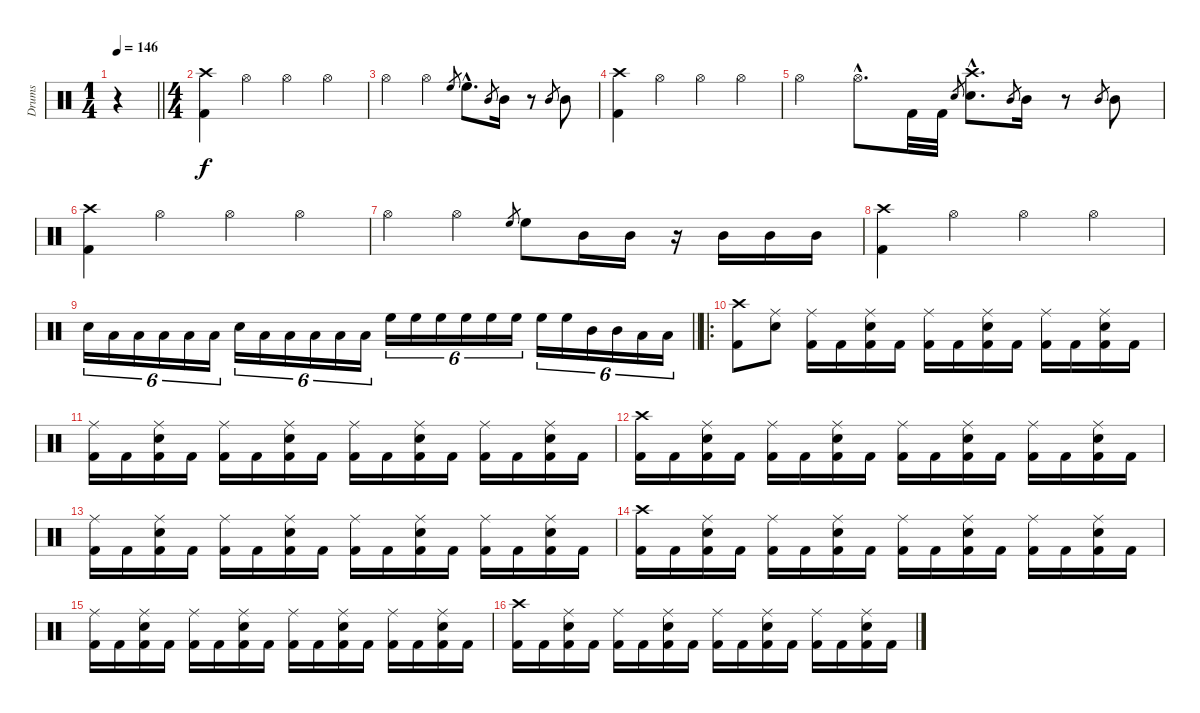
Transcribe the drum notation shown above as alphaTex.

\track ("Drums" "Drums") {instrument percussion}
\staff {score}
\articulation defaults
\ts (1 4)
\tempo 146
\clef neutral
\barLineRight lightlight
\ks c
r.4{dy f} |
\ts (4 4)
("Crash high (hit)" "Kick (hit) 2").4 "Hi-Hat (open)".4 "Hi-Hat (open)".4 "Hi-Hat (open)".4 |
"Hi-Hat (open)".4 "Hi-Hat (open)".4 "High Floor Tom (hit)".8{gr} "High Floor Tom (hit)"{hac}.8{d} "Mid Tom (hit)".8{gr} "Mid Tom (hit)".16 r.8 "Mid Tom (hit)".8{gr} "Mid Tom (hit)".8 |
("Crash high (hit)" "Kick (hit) 2").4 "Hi-Hat (open)".4 "Hi-Hat (open)".4 "Hi-Hat (open)".4 |
"Hi-Hat (open)".4 "Hi-Hat (open)"{hac}.8{d} "Kick (hit) 2".32 "Kick (hit) 2".32 "Snare (hit) 2".8{gr} ("Crash high (hit)"{hac} "Snare (hit) 2"{hac}).8{d} "Mid Tom (hit)".8{gr} "Mid Tom (hit)".16 r.8 "Mid Tom (hit)".8{gr} "Mid Tom (hit)".8 |
("Crash high (hit)" "Kick (hit) 2").4 "Hi-Hat (open)".4 "Hi-Hat (open)".4 "Hi-Hat (open)".4 |
"Hi-Hat (open)".4 "Hi-Hat (open)".4 "High Floor Tom (hit)".8{gr} "High Floor Tom (hit)".8 "Mid Tom (hit)".16 "Mid Tom (hit)".16 r.16 "Mid Tom (hit)".16 "Mid Tom (hit)".16 "Mid Tom (hit)".16 |
("Crash high (hit)" "Kick (hit) 2").4 "Hi-Hat (open)".4 "Hi-Hat (open)".4 "Hi-Hat (open)".4 |
\barLineRight lightlight "Snare (hit) 2".16{tu (6 4)} "Low Floor Tom (hit)".16{tu (6 4)} "Low Floor Tom (hit)".16{tu (6 4)} "Low Floor Tom (hit)".16{tu (6 4)} "Low Floor Tom (hit)".16{tu (6 4)} "Low Floor Tom (hit)".16{tu (6 4)} "Snare (hit) 2".16{tu (6 4)} "Low Floor Tom (hit)".16{tu (6 4)} "Low Floor Tom (hit)".16{tu (6 4)} "Low Floor Tom (hit)".16{tu (6 4)} "Low Floor Tom (hit)".16{tu (6 4)} "Low Floor Tom (hit)".16{tu (6 4)} "High Floor Tom (hit)".16{tu (6 4)} "High Floor Tom (hit)".16{tu (6 4)} "High Floor Tom (hit)".16{tu (6 4)} "High Floor Tom (hit)".16{tu (6 4)} "High Floor Tom (hit)".16{tu (6 4)} "High Floor Tom (hit)".16{tu (6 4)} "High Floor Tom (hit)".16{tu (6 4)} "High Floor Tom (hit)".16{tu (6 4)} "Mid Tom (hit)".16{tu (6 4)} "Mid Tom (hit)".16{tu (6 4)} "Low Floor Tom (hit)".16{tu (6 4)} "Low Floor Tom (hit)".16{tu (6 4)}
|
\ro
("Crash high (hit)" "Kick (hit) 2").8 ("Ride (middle)" "Snare (hit) 2").8 ("Ride (middle)" "Kick (hit) 2").16 "Kick (hit) 2".16 ("Ride (middle)" "Snare (hit) 2" "Kick (hit) 2").16 "Kick (hit) 2".16 ("Ride (middle)" "Kick (hit) 2").16 "Kick (hit) 2".16 ("Ride (middle)" "Snare (hit) 2" "Kick (hit) 2").16 "Kick (hit) 2".16 ("Ride (middle)" "Kick (hit) 2").16 "Kick (hit) 2".16 ("Ride (middle)" "Snare (hit) 2" "Kick (hit) 2").16 "Kick (hit) 2".16 |
("Ride (middle)" "Kick (hit) 2").16 "Kick (hit) 2".16 ("Ride (middle)" "Snare (hit) 2" "Kick (hit) 2").16 "Kick (hit) 2".16 ("Ride (middle)" "Kick (hit) 2").16 "Kick (hit) 2".16 ("Ride (middle)" "Snare (hit) 2" "Kick (hit) 2").16 "Kick (hit) 2".16 ("Ride (middle)" "Kick (hit) 2").16 "Kick (hit) 2".16 ("Ride (middle)" "Snare (hit) 2" "Kick (hit) 2").16 "Kick (hit) 2".16 ("Ride (middle)" "Kick (hit) 2").16 "Kick (hit) 2".16 ("Ride (middle)" "Snare (hit) 2" "Kick (hit) 2").16 "Kick (hit) 2".16 |
("Crash high (hit)" "Kick (hit) 2").16 "Kick (hit) 2".16 ("Ride (middle)" "Snare (hit) 2" "Kick (hit) 2").16 "Kick (hit) 2".16 ("Ride (middle)" "Kick (hit) 2").16 "Kick (hit) 2".16 ("Ride (middle)" "Snare (hit) 2" "Kick (hit) 2").16 "Kick (hit) 2".16 ("Ride (middle)" "Kick (hit) 2").16 "Kick (hit) 2".16 ("Ride (middle)" "Snare (hit) 2" "Kick (hit) 2").16 "Kick (hit) 2".16 ("Ride (middle)" "Kick (hit) 2").16 "Kick (hit) 2".16 ("Ride (middle)" "Snare (hit) 2" "Kick (hit) 2").16 "Kick (hit) 2".16 |
("Ride (middle)" "Kick (hit) 2").16 "Kick (hit) 2".16 ("Ride (middle)" "Snare (hit) 2" "Kick (hit) 2").16 "Kick (hit) 2".16 ("Ride (middle)" "Kick (hit) 2").16 "Kick (hit) 2".16 ("Ride (middle)" "Snare (hit) 2" "Kick (hit) 2").16 "Kick (hit) 2".16 ("Ride (middle)" "Kick (hit) 2").16 "Kick (hit) 2".16 ("Ride (middle)" "Snare (hit) 2" "Kick (hit) 2").16 "Kick (hit) 2".16 ("Ride (middle)" "Kick (hit) 2").16 "Kick (hit) 2".16 ("Ride (middle)" "Snare (hit) 2" "Kick (hit) 2").16 "Kick (hit) 2".16 |
("Crash high (hit)" "Kick (hit) 2").16 "Kick (hit) 2".16 ("Ride (middle)" "Snare (hit) 2" "Kick (hit) 2").16 "Kick (hit) 2".16 ("Ride (middle)" "Kick (hit) 2").16 "Kick (hit) 2".16 ("Ride (middle)" "Snare (hit) 2" "Kick (hit) 2").16 "Kick (hit) 2".16 ("Ride (middle)" "Kick (hit) 2").16 "Kick (hit) 2".16 ("Ride (middle)" "Snare (hit) 2" "Kick (hit) 2").16 "Kick (hit) 2".16 ("Ride (middle)" "Kick (hit) 2").16 "Kick (hit) 2".16 ("Ride (middle)" "Snare (hit) 2" "Kick (hit) 2").16 "Kick (hit) 2".16 |
("Ride (middle)" "Kick (hit) 2").16 "Kick (hit) 2".16 ("Ride (middle)" "Snare (hit) 2" "Kick (hit) 2").16 "Kick (hit) 2".16 ("Ride (middle)" "Kick (hit) 2").16 "Kick (hit) 2".16 ("Ride (middle)" "Snare (hit) 2" "Kick (hit) 2").16 "Kick (hit) 2".16 ("Ride (middle)" "Kick (hit) 2").16 "Kick (hit) 2".16 ("Ride (middle)" "Snare (hit) 2" "Kick (hit) 2").16 "Kick (hit) 2".16 ("Ride (middle)" "Kick (hit) 2").16 "Kick (hit) 2".16 ("Ride (middle)" "Snare (hit) 2" "Kick (hit) 2").16 "Kick (hit) 2".16 |
("Crash high (hit)" "Kick (hit) 2").16 "Kick (hit) 2".16 ("Ride (middle)" "Snare (hit) 2" "Kick (hit) 2").16 "Kick (hit) 2".16 ("Ride (middle)" "Kick (hit) 2").16 "Kick (hit) 2".16 ("Ride (middle)" "Snare (hit) 2" "Kick (hit) 2").16 "Kick (hit) 2".16 ("Ride (middle)" "Kick (hit) 2").16 "Kick (hit) 2".16 ("Ride (middle)" "Snare (hit) 2" "Kick (hit) 2").16 "Kick (hit) 2".16 ("Ride (middle)" "Kick (hit) 2").16 "Kick (hit) 2".16 ("Ride (middle)" "Snare (hit) 2" "Kick (hit) 2").16 "Kick (hit) 2".16
